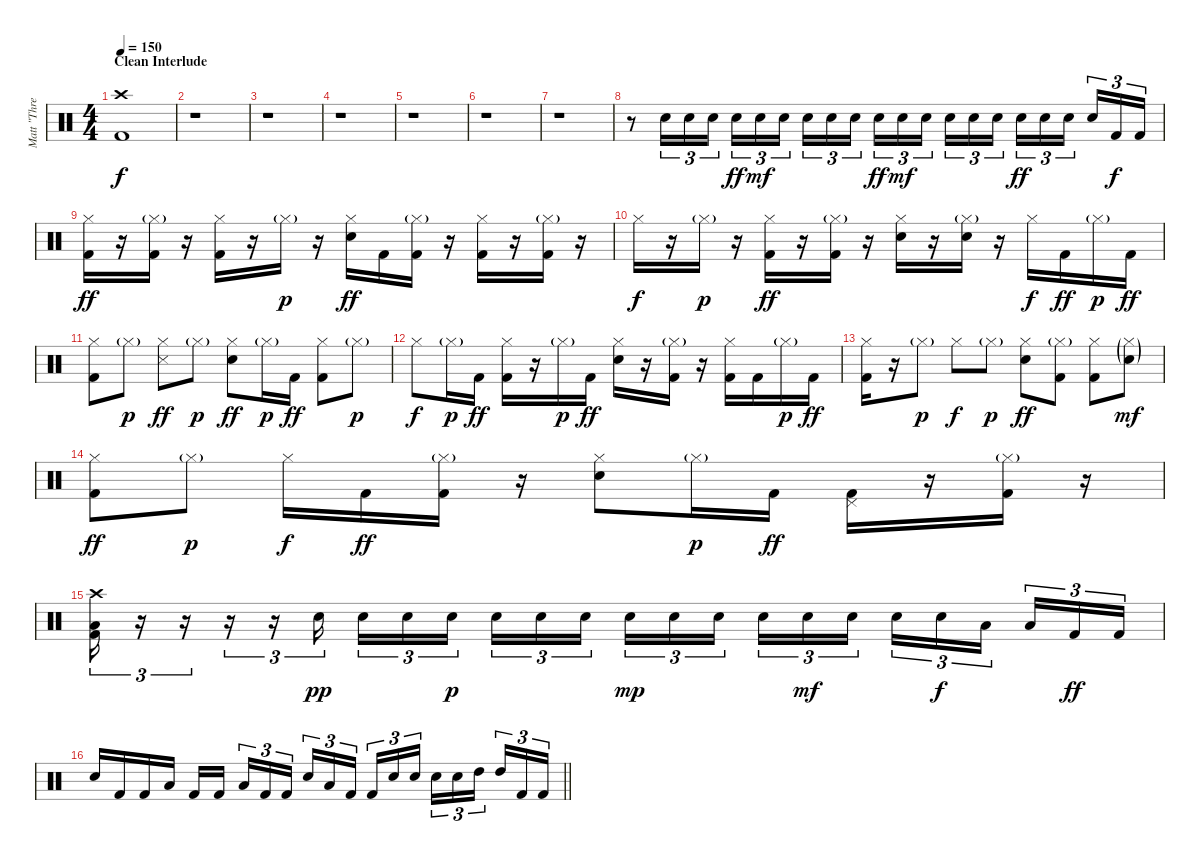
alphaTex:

\track ("Matt \"Three Cymbals/Swing\" Halpern" "Matt \"Thre") {instrument percussion}
\staff {score}
\articulation defaults
\ts (4 4)
\section ("" "Clean Interlude")
\tempo 150
\clef neutral
\ks c
("Crash high (hit)" "Kick (hit) 2").1{dy f} |
r.1 |
r.1 |
r.1 |
r.1 |
r.1 |
r.1 |
r.8{volume 4} "Snare (hit) 2".16{tu (3 2) volume 13} "Snare (hit) 2".16{tu (3 2)} "Snare (hit) 2".16{tu (3 2)} "Snare (hit) 2".16{tu (3 2) dy ff} "Snare (hit) 2".16{tu (3 2) dy mf} "Snare (hit) 2".16{tu (3 2) beam splitsecondary} "Snare (hit) 2".16{tu (3 2)} "Snare (hit) 2".16{tu (3 2)} "Snare (hit) 2".16{tu (3 2)} "Snare (hit) 2".16{tu (3 2) dy ff} "Snare (hit) 2".16{tu (3 2) dy mf} "Snare (hit) 2".16{tu (3 2) beam splitsecondary} "Snare (hit) 2".16{tu (3 2)} "Snare (hit) 2".16{tu (3 2)} "Snare (hit) 2".16{tu (3 2)} "Snare (hit) 2".16{tu (3 2) dy ff} "Snare (hit) 2".16{tu (3 2)} "Snare (hit) 2".16{tu (3 2) beam splitsecondary} "Snare (hit) 2".16{tu (3 2)} "Kick (hit) 2".16{tu (3 2) dy f} "Kick (hit) 2".16{tu (3 2)} |
("Hi-Hat (closed)" "Kick (hit) 2").16{dy ff} r.16 ("Hi-Hat (closed)"{g} "Kick (hit) 2").16 r.16 ("Hi-Hat (closed)" "Kick (hit) 2").16 r.16 "Hi-Hat (closed)"{g}.16{dy p} r.16 ("Hi-Hat (closed)" "Snare (hit) 2").16{dy ff} "Kick (hit) 2".16 ("Hi-Hat (closed)"{g} "Kick (hit) 2").16 r.16 ("Hi-Hat (closed)" "Kick (hit) 2").16 r.16 ("Hi-Hat (closed)"{g} "Kick (hit) 2").16 r.16 |
"Hi-Hat (closed)".16{dy f} r.16 "Hi-Hat (closed)"{g}.16{dy p} r.16 ("Hi-Hat (closed)" "Kick (hit) 2").16{dy ff} r.16 ("Hi-Hat (closed)"{g} "Kick (hit) 2").16 r.16 ("Hi-Hat (closed)" "Snare (hit) 2").16 r.16 ("Hi-Hat (closed)"{g} "Snare (hit) 2").16 r.16 "Hi-Hat (closed)".16{dy f} "Kick (hit) 2".16{dy ff} "Hi-Hat (closed)"{g}.16{dy p} "Kick (hit) 2".16{dy ff} |
("Hi-Hat (closed)" "Kick (hit) 2").8 "Hi-Hat (closed)"{g}.8{dy p} ("Hi-Hat (closed)" "Snare (side stick) 3").8{dy ff} "Hi-Hat (closed)"{g}.8{dy p} ("Hi-Hat (closed)" "Snare (hit) 2").8{dy ff} "Hi-Hat (closed)"{g}.16{dy p} "Kick (hit) 2".16{dy ff} ("Hi-Hat (closed)" "Kick (hit) 2").8 "Hi-Hat (closed)"{g}.8{dy p} |
"Hi-Hat (closed)".8{dy f} "Hi-Hat (closed)"{g}.16{dy p} "Kick (hit) 2".16{dy ff} ("Hi-Hat (closed)" "Kick (hit) 2").16 r.16 "Hi-Hat (closed)"{g}.16{dy p} "Kick (hit) 2".16{dy ff} ("Hi-Hat (closed)" "Snare (hit) 2").16 r.16 ("Hi-Hat (closed)"{g} "Kick (hit) 2").16 r.16 ("Hi-Hat (closed)" "Kick (hit) 2").16 "Kick (hit) 2".16 "Hi-Hat (closed)"{g}.16{dy p} "Kick (hit) 2".16{dy ff} |
("Hi-Hat (closed)" "Kick (hit) 2").16 r.16 "Hi-Hat (closed)"{g}.8{dy p} "Hi-Hat (closed)".8{dy f} "Hi-Hat (closed)"{g}.8{dy p} ("Hi-Hat (closed)" "Snare (hit) 2").8{dy ff} ("Hi-Hat (closed)"{g} "Kick (hit) 2").8 ("Hi-Hat (closed)" "Kick (hit) 2").8 ("Hi-Hat (closed)"{g} "Snare (hit) 2"{g}).8{dy mf} |
("Hi-Hat (closed)" "Kick (hit) 2").8{dy ff} "Hi-Hat (closed)"{g}.8{dy p} "Hi-Hat (closed)".16{dy f} "Kick (hit) 2".16{dy ff} ("Hi-Hat (closed)"{g} "Kick (hit) 2").16 r.16 ("Hi-Hat (closed)" "Snare (hit) 2").8 "Hi-Hat (closed)"{g}.16{dy p} "Kick (hit) 2".16{dy ff} ("Pedal Hi-Hat (hit)" "Kick (hit) 2").16 r.16 ("Hi-Hat (closed)"{g} "Kick (hit) 2").16 r.16 |
("Crash high (hit)" "Low Floor Tom (hit)" "Kick (hit) 2").16{tu (3 2)} r.16{tu (3 2)} r.16{tu (3 2)} r.16{tu (3 2)} r.16{tu (3 2)} "Snare (hit) 2".16{tu (3 2) dy pp} "Snare (hit) 2".16{tu (3 2)} "Snare (hit) 2".16{tu (3 2)} "Snare (hit) 2".16{tu (3 2) dy p beam splitsecondary} "Snare (hit) 2".16{tu (3 2)} "Snare (hit) 2".16{tu (3 2)} "Snare (hit) 2".16{tu (3 2)} "Snare (hit) 2".16{tu (3 2) dy mp} "Snare (hit) 2".16{tu (3 2)} "Snare (hit) 2".16{tu (3 2) beam splitsecondary} "Snare (hit) 2".16{tu (3 2)} "Snare (hit) 2".16{tu (3 2) dy mf} "Snare (hit) 2".16{tu (3 2)} "Snare (hit) 2".16{tu (3 2)} "Snare (hit) 2".16{tu (3 2) dy f} "Low Floor Tom (hit)".16{tu (3 2) beam splitsecondary} "Low Floor Tom (hit)".16{tu (3 2)} "Kick (hit) 2".16{tu (3 2) dy ff} "Kick (hit) 2".16{tu (3 2)} |
\barLineRight lightlight "Snare (hit) 2".16 "Kick (hit) 2".16 "Kick (hit) 2".16 "Low Floor Tom (hit)".16 "Kick (hit) 2".16 "Kick (hit) 2".16{beam splitsecondary} "Low Floor Tom (hit)".16{tu (3 2)} "Kick (hit) 2".16{tu (3 2)} "Kick (hit) 2".16{tu (3 2)} "Snare (hit) 2".16{tu (3 2)} "Low Floor Tom (hit)".16{tu (3 2)} "Kick (hit) 2".16{tu (3 2) beam splitsecondary} "Kick (hit) 2".16{tu (3 2)} "Snare (hit) 2".16{tu (3 2)} "Snare (hit) 2".16{tu (3 2)} "Snare (hit) 2".16{tu (3 2)} "Snare (hit) 2".16{tu (3 2)} "High Tom (hit)".16{tu (3 2) beam splitsecondary} "High Tom (hit)".16{tu (3 2)} "Kick (hit) 2".16{tu (3 2)} "Kick (hit) 2".16{tu (3 2)}
